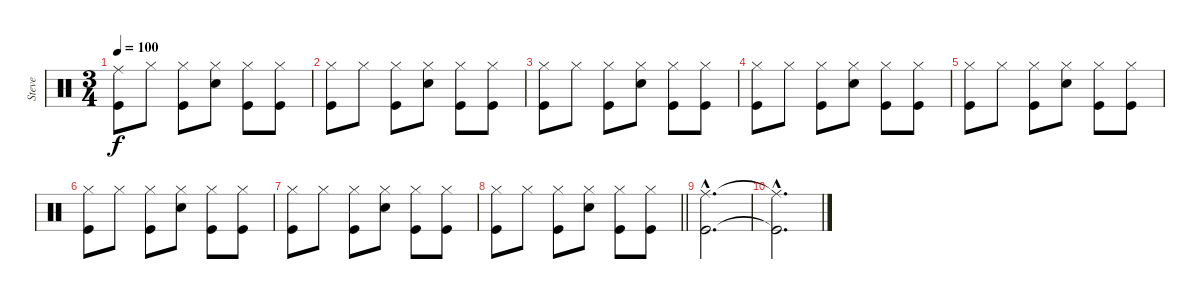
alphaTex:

\track ("Steve" "Steve") {instrument percussion}
\staff {score}
\articulation defaults
\ts (3 4)
\tempo 100
\clef neutral
\ks c
("Kick (hit)" "Ride (middle)").8{dy f} "Hi-Hat (closed)".8 ("Kick (hit)" "Hi-Hat (closed)").8 ("Snare (hit) 2" "Hi-Hat (closed)").8 ("Kick (hit)" "Hi-Hat (closed)").8 ("Kick (hit)" "Hi-Hat (closed)").8 |
("Kick (hit)" "Hi-Hat (closed)").8 "Hi-Hat (closed)".8 ("Kick (hit)" "Hi-Hat (closed)").8 ("Snare (hit) 2" "Hi-Hat (closed)").8 ("Kick (hit)" "Hi-Hat (closed)").8 ("Kick (hit)" "Hi-Hat (closed)").8 |
("Kick (hit)" "Hi-Hat (closed)").8 "Hi-Hat (closed)".8 ("Kick (hit)" "Hi-Hat (closed)").8 ("Snare (hit) 2" "Hi-Hat (closed)").8 ("Kick (hit)" "Hi-Hat (closed)").8 ("Kick (hit)" "Hi-Hat (closed)").8 |
("Kick (hit)" "Hi-Hat (closed)").8 "Hi-Hat (closed)".8 ("Kick (hit)" "Hi-Hat (closed)").8 ("Snare (hit) 2" "Hi-Hat (closed)").8 ("Kick (hit)" "Hi-Hat (closed)").8 ("Kick (hit)" "Hi-Hat (closed)").8 |
("Kick (hit)" "Hi-Hat (closed)").8 "Hi-Hat (closed)".8 ("Kick (hit)" "Hi-Hat (closed)").8 ("Snare (hit) 2" "Hi-Hat (closed)").8 ("Kick (hit)" "Hi-Hat (closed)").8 ("Kick (hit)" "Hi-Hat (closed)").8 |
("Kick (hit)" "Hi-Hat (closed)").8 "Hi-Hat (closed)".8 ("Kick (hit)" "Hi-Hat (closed)").8 ("Snare (hit) 2" "Hi-Hat (closed)").8 ("Kick (hit)" "Hi-Hat (closed)").8 ("Kick (hit)" "Hi-Hat (closed)").8 |
("Kick (hit)" "Hi-Hat (closed)").8 "Hi-Hat (closed)".8 ("Kick (hit)" "Hi-Hat (closed)").8 ("Snare (hit) 2" "Hi-Hat (closed)").8 ("Kick (hit)" "Hi-Hat (closed)").8 ("Kick (hit)" "Hi-Hat (closed)").8 |
\barLineRight lightlight
("Kick (hit)" "Hi-Hat (closed)").8 "Hi-Hat (closed)".8 ("Kick (hit)" "Hi-Hat (closed)").8 ("Snare (hit) 2" "Hi-Hat (closed)").8 ("Kick (hit)" "Hi-Hat (closed)").8 ("Kick (hit)" "Hi-Hat (closed)").8 |
("Ride (middle)"{hac} "Kick (hit)"{hac}).2{d} |
("Ride (middle)"{hac t} "Kick (hit)"{hac t}).2{d}
